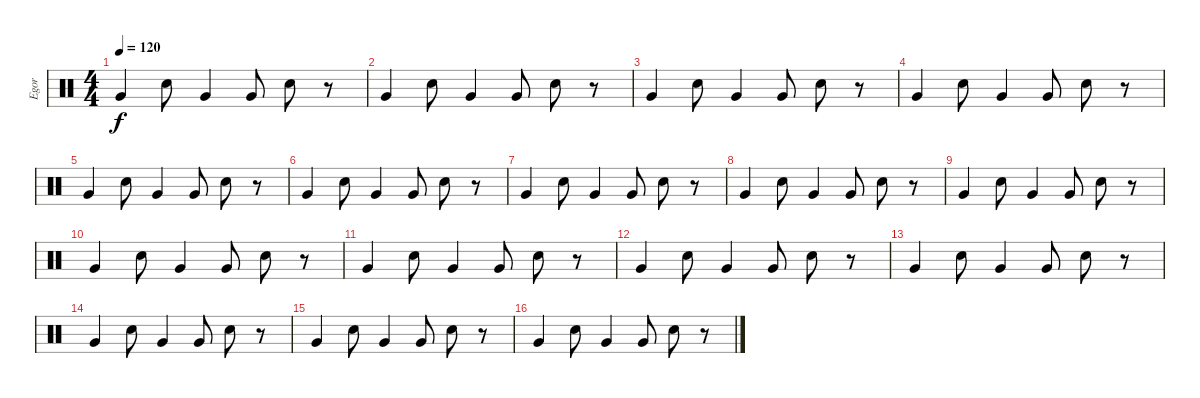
\track ("Egor " "Egor ") {instrument percussion}
\staff {score}
\articulation defaults
\ts (4 4)
\tempo 120
\clef neutral
\ks c "Very Low Tom (hit)".4{dy f} "Electric Snare (hit)".8 "Very Low Tom (hit)".4 "Very Low Tom (hit)".8 "Electric Snare (hit)".8
r.8 |
"Very Low Tom (hit)".4 "Electric Snare (hit)".8 "Very Low Tom (hit)".4 "Very Low Tom (hit)".8 "Electric Snare (hit)".8 r.8 |
"Very Low Tom (hit)".4 "Electric Snare (hit)".8 "Very Low Tom (hit)".4 "Very Low Tom (hit)".8 "Electric Snare (hit)".8 r.8 |
"Very Low Tom (hit)".4 "Electric Snare (hit)".8 "Very Low Tom (hit)".4 "Very Low Tom (hit)".8 "Electric Snare (hit)".8 r.8 |
"Very Low Tom (hit)".4 "Electric Snare (hit)".8 "Very Low Tom (hit)".4 "Very Low Tom (hit)".8 "Electric Snare (hit)".8 r.8 |
"Very Low Tom (hit)".4 "Electric Snare (hit)".8 "Very Low Tom (hit)".4 "Very Low Tom (hit)".8 "Electric Snare (hit)".8 r.8 |
"Very Low Tom (hit)".4 "Electric Snare (hit)".8 "Very Low Tom (hit)".4 "Very Low Tom (hit)".8 "Electric Snare (hit)".8 r.8 |
"Very Low Tom (hit)".4 "Electric Snare (hit)".8 "Very Low Tom (hit)".4 "Very Low Tom (hit)".8 "Electric Snare (hit)".8 r.8 |
"Very Low Tom (hit)".4 "Electric Snare (hit)".8 "Very Low Tom (hit)".4 "Very Low Tom (hit)".8 "Electric Snare (hit)".8 r.8 |
"Very Low Tom (hit)".4 "Electric Snare (hit)".8 "Very Low Tom (hit)".4 "Very Low Tom (hit)".8 "Electric Snare (hit)".8 r.8 |
"Very Low Tom (hit)".4 "Electric Snare (hit)".8 "Very Low Tom (hit)".4 "Very Low Tom (hit)".8 "Electric Snare (hit)".8 r.8 |
"Very Low Tom (hit)".4 "Electric Snare (hit)".8 "Very Low Tom (hit)".4 "Very Low Tom (hit)".8 "Electric Snare (hit)".8 r.8 |
"Very Low Tom (hit)".4 "Electric Snare (hit)".8 "Very Low Tom (hit)".4 "Very Low Tom (hit)".8 "Electric Snare (hit)".8 r.8 |
"Very Low Tom (hit)".4 "Electric Snare (hit)".8 "Very Low Tom (hit)".4 "Very Low Tom (hit)".8 "Electric Snare (hit)".8 r.8 |
"Very Low Tom (hit)".4 "Electric Snare (hit)".8 "Very Low Tom (hit)".4 "Very Low Tom (hit)".8 "Electric Snare (hit)".8 r.8 |
"Very Low Tom (hit)".4 "Electric Snare (hit)".8 "Very Low Tom (hit)".4 "Very Low Tom (hit)".8 "Electric Snare (hit)".8 r.8
